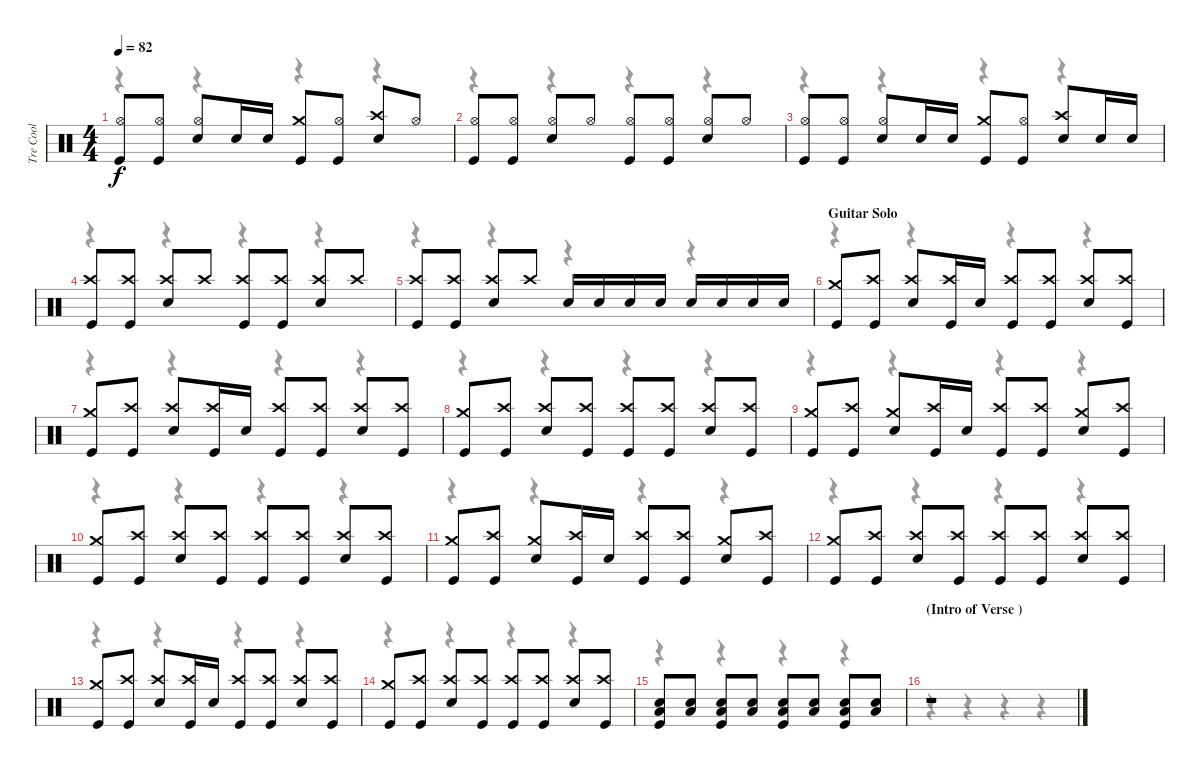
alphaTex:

\track ("Tre Cool" "Tre Cool") {instrument percussion}
\staff {score}
\articulation defaults
\voice
\ts (4 4)
\tempo 82
\clef neutral
\ks c
("Hi-Hat (open)" "Kick (hit)").8{dy f} ("Hi-Hat (open)" "Kick (hit)").8 ("Hi-Hat (open)" "Snare (hit) 2").8 "Snare (hit) 2".16 "Snare (hit) 2".16 ("Crash medium (hit)" "Kick (hit)").8 ("Hi-Hat (open)" "Kick (hit)").8 ("Crash high (hit)" "Snare (hit) 2").8 "Hi-Hat (open)".8 |
("Hi-Hat (open)" "Kick (hit)").8 ("Hi-Hat (open)" "Kick (hit)").8 ("Hi-Hat (open)" "Snare (hit) 2").8 "Hi-Hat (open)".8 ("Hi-Hat (open)" "Kick (hit)").8 ("Hi-Hat (open)" "Kick (hit)").8 ("Hi-Hat (open)" "Snare (hit) 2").8 "Hi-Hat (open)".8 |
("Hi-Hat (open)" "Kick (hit)").8 ("Hi-Hat (open)" "Kick (hit)").8 ("Hi-Hat (open)" "Snare (hit) 2").8 "Snare (hit) 2".16 "Snare (hit) 2".16 ("Crash medium (hit)" "Kick (hit)").8 ("Hi-Hat (open)" "Kick (hit)").8 ("Crash high (hit)" "Snare (hit) 2").8 "Snare (hit) 2".16 "Snare (hit) 2".16 |
("Crash high (hit)" "Kick (hit)").8 ("Crash high (hit)" "Kick (hit)").8 ("Crash high (hit)" "Snare (hit) 2").8 "Crash high (hit)".8 ("Crash high (hit)" "Kick (hit)").8 ("Crash high (hit)" "Kick (hit)").8 ("Crash high (hit)" "Snare (hit) 2").8 "Crash high (hit)".8 |
("Crash high (hit)" "Kick (hit)").8 ("Crash high (hit)" "Kick (hit)").8 ("Crash high (hit)" "Snare (hit) 2").8 "Crash high (hit)".8 "Snare (hit) 2".16 "Snare (hit) 2".16 "Snare (hit) 2".16 "Snare (hit) 2".16 "Snare (hit) 2".16 "Snare (hit) 2".16 "Snare (hit) 2".16 "Snare (hit) 2".16 |
\section ("" "Guitar Solo")
("Crash medium (hit)" "Kick (hit)").8 ("Crash high (hit)" "Kick (hit)").8 ("Crash high (hit)" "Snare (hit) 2").8 ("Crash high (hit)" "Kick (hit)").16 "Snare (hit) 2".16 ("Crash high (hit)" "Kick (hit)").8 ("Crash high (hit)" "Kick (hit)").8 ("Crash high (hit)" "Snare (hit) 2").8 ("Crash high (hit)" "Kick (hit)").8 |
("Crash medium (hit)" "Kick (hit)").8 ("Crash high (hit)" "Kick (hit)").8 ("Crash high (hit)" "Snare (hit) 2").8 ("Crash high (hit)" "Kick (hit)").16 "Snare (hit) 2".16 ("Crash high (hit)" "Kick (hit)").8 ("Crash high (hit)" "Kick (hit)").8 ("Crash high (hit)" "Snare (hit) 2").8 ("Crash high (hit)" "Kick (hit)").8 |
("Crash medium (hit)" "Kick (hit)").8 ("Crash high (hit)" "Kick (hit)").8 ("Crash high (hit)" "Snare (hit) 2").8 ("Crash high (hit)" "Kick (hit)").8 ("Crash high (hit)" "Kick (hit)").8 ("Crash high (hit)" "Kick (hit)").8 ("Crash high (hit)" "Snare (hit) 2").8 ("Crash high (hit)" "Kick (hit)").8 |
("Crash medium (hit)" "Kick (hit)").8 ("Crash high (hit)" "Kick (hit)").8 ("Crash medium (hit)" "Snare (hit) 2").8 ("Crash high (hit)" "Kick (hit)").16 "Snare (hit) 2".16 ("Crash high (hit)" "Kick (hit)").8 ("Crash high (hit)" "Kick (hit)").8 ("Crash medium (hit)" "Snare (hit) 2").8 ("Crash high (hit)" "Kick (hit)").8 |
("Crash medium (hit)" "Kick (hit)").8 ("Crash high (hit)" "Kick (hit)").8 ("Crash high (hit)" "Snare (hit) 2").8 ("Crash high (hit)" "Kick (hit)").8 ("Crash high (hit)" "Kick (hit)").8 ("Crash high (hit)" "Kick (hit)").8 ("Crash high (hit)" "Snare (hit) 2").8 ("Crash high (hit)" "Kick (hit)").8 |
("Crash medium (hit)" "Kick (hit)").8 ("Crash high (hit)" "Kick (hit)").8 ("Crash medium (hit)" "Snare (hit) 2").8 ("Crash high (hit)" "Kick (hit)").16 "Snare (hit) 2".16 ("Crash high (hit)" "Kick (hit)").8 ("Crash high (hit)" "Kick (hit)").8 ("Crash medium (hit)" "Snare (hit) 2").8 ("Crash high (hit)" "Kick (hit)").8 |
("Crash medium (hit)" "Kick (hit)").8 ("Crash high (hit)" "Kick (hit)").8 ("Crash high (hit)" "Snare (hit) 2").8 ("Crash high (hit)" "Kick (hit)").8 ("Crash high (hit)" "Kick (hit)").8 ("Crash high (hit)" "Kick (hit)").8 ("Crash high (hit)" "Snare (hit) 2").8 ("Crash high (hit)" "Kick (hit)").8 |
("Crash medium (hit)" "Kick (hit)").8 ("Crash high (hit)" "Kick (hit)").8 ("Crash high (hit)" "Snare (hit) 2").8 ("Crash high (hit)" "Kick (hit)").16 "Snare (hit) 2".16 ("Crash high (hit)" "Kick (hit)").8 ("Crash high (hit)" "Kick (hit)").8 ("Crash high (hit)" "Snare (hit) 2").8 ("Crash high (hit)" "Kick (hit)").8 |
("Crash medium (hit)" "Kick (hit)").8 ("Crash high (hit)" "Kick (hit)").8 ("Crash high (hit)" "Snare (hit) 2").8 ("Crash high (hit)" "Kick (hit)").8 ("Crash high (hit)" "Kick (hit)").8 ("Crash high (hit)" "Kick (hit)").8 ("Crash high (hit)" "Snare (hit) 2").8 ("Crash high (hit)" "Kick (hit)").8 |
("Snare (hit) 2" "Low Floor Tom (hit)" "Kick (hit)").8 ("Snare (hit) 2" "Low Floor Tom (hit)").8 ("Snare (hit) 2" "Low Floor Tom (hit)" "Kick (hit)").8 ("Snare (hit) 2" "Low Floor Tom (hit)").8 ("Snare (hit) 2" "Low Floor Tom (hit)" "Kick (hit)").8 ("Snare (hit) 2" "Low Floor Tom (hit)").8 ("Snare (hit) 2" "Low Floor Tom (hit)" "Kick (hit)").8 ("Snare (hit) 2" "Low Floor Tom (hit)").8 |
\section ("" "(Intro of Verse )")
r.1
\voice
\clef neutral
\ottava regular
\simile none
\ks c
r.4{dy f} r.4 r.4 r.4 |
r.4 r.4 r.4 r.4 |
r.4 r.4 r.4 r.4 |
r.4 r.4 r.4 r.4 |
r.4 r.4 r.4 r.4 |
r.4 r.4 r.4 r.4 |
r.4 r.4 r.4 r.4 |
r.4 r.4 r.4 r.4 |
r.4 r.4 r.4 r.4 |
r.4 r.4 r.4 r.4 |
r.4 r.4 r.4 r.4 |
r.4 r.4 r.4 r.4 |
r.4 r.4 r.4 r.4 |
r.4 r.4 r.4 r.4 |
r.4 r.4 r.4 r.4 |
r.4 r.4 r.4 r.4
